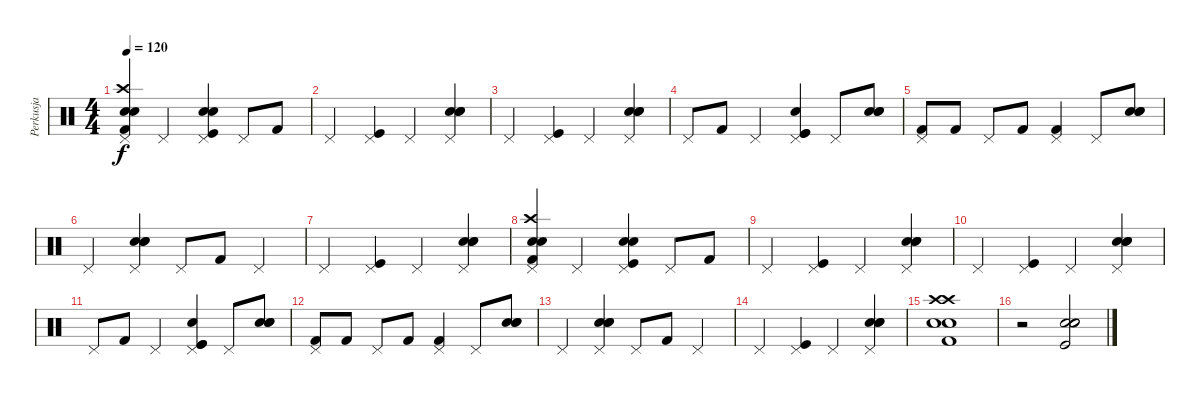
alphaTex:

\track ("Perkusja" "Perkusja") {instrument percussion}
\staff {score}
\articulation defaults
\ts (4 4)
\tempo 120
\clef neutral
\ks c
("Pedal Hi-Hat (hit)" "Crash high (hit)" "Snare (hit) 2" "Electric Snare (hit)" "Kick (hit) 2").4{dy f} "Pedal Hi-Hat (hit)".4 ("Pedal Hi-Hat (hit)" "Kick (hit)" "Electric Snare (hit)" "Snare (hit) 2").4 "Pedal Hi-Hat (hit)".8 "Kick (hit) 2".8 |
"Pedal Hi-Hat (hit)".4 ("Pedal Hi-Hat (hit)" "Kick (hit)").4 "Pedal Hi-Hat (hit)".4 ("Pedal Hi-Hat (hit)" "Snare (hit) 2" "Snare (hit) 2" "Electric Snare (hit)").4 |
"Pedal Hi-Hat (hit)".4 ("Pedal Hi-Hat (hit)" "Kick (hit)").4 "Pedal Hi-Hat (hit)".4 ("Pedal Hi-Hat (hit)" "Snare (hit) 2" "Snare (hit) 2" "Electric Snare (hit)").4 |
"Pedal Hi-Hat (hit)".8 "Kick (hit) 2".8 "Pedal Hi-Hat (hit)".4 ("Pedal Hi-Hat (hit)" "Electric Snare (hit)" "Kick (hit)" "Kick (hit)").4 "Pedal Hi-Hat (hit)".8 ("Snare (hit) 2" "Snare (hit) 2" "Electric Snare (hit)").8 |
("Pedal Hi-Hat (hit)" "Kick (hit) 2").8 "Kick (hit) 2".8 "Pedal Hi-Hat (hit)".8 "Kick (hit) 2".8 ("Pedal Hi-Hat (hit)" "Kick (hit) 2").4 "Pedal Hi-Hat (hit)".8 ("Snare (hit) 2" "Snare (hit) 2" "Electric Snare (hit)").8 |
"Pedal Hi-Hat (hit)".4 ("Pedal Hi-Hat (hit)" "Snare (hit) 2" "Snare (hit) 2" "Electric Snare (hit)").4 "Pedal Hi-Hat (hit)".8 "Kick (hit) 2".8 "Pedal Hi-Hat (hit)".4 |
"Pedal Hi-Hat (hit)".4 ("Pedal Hi-Hat (hit)" "Kick (hit)").4 "Pedal Hi-Hat (hit)".4 ("Pedal Hi-Hat (hit)" "Snare (hit) 2" "Snare (hit) 2" "Electric Snare (hit)").4 |
("Pedal Hi-Hat (hit)" "Crash high (hit)" "Snare (hit) 2" "Electric Snare (hit)" "Kick (hit) 2").4 "Pedal Hi-Hat (hit)".4 ("Pedal Hi-Hat (hit)" "Kick (hit)" "Electric Snare (hit)" "Snare (hit) 2").4 "Pedal Hi-Hat (hit)".8 "Kick (hit) 2".8 |
"Pedal Hi-Hat (hit)".4 ("Pedal Hi-Hat (hit)" "Kick (hit)").4 "Pedal Hi-Hat (hit)".4 ("Pedal Hi-Hat (hit)" "Snare (hit) 2" "Snare (hit) 2" "Electric Snare (hit)").4 |
"Pedal Hi-Hat (hit)".4 ("Pedal Hi-Hat (hit)" "Kick (hit)").4 "Pedal Hi-Hat (hit)".4 ("Pedal Hi-Hat (hit)" "Snare (hit) 2" "Snare (hit) 2" "Electric Snare (hit)").4 |
"Pedal Hi-Hat (hit)".8 "Kick (hit) 2".8 "Pedal Hi-Hat (hit)".4 ("Pedal Hi-Hat (hit)" "Electric Snare (hit)" "Kick (hit)" "Kick (hit)").4 "Pedal Hi-Hat (hit)".8 ("Snare (hit) 2" "Snare (hit) 2" "Electric Snare (hit)").8 |
("Pedal Hi-Hat (hit)" "Kick (hit) 2").8 "Kick (hit) 2".8 "Pedal Hi-Hat (hit)".8 "Kick (hit) 2".8 ("Pedal Hi-Hat (hit)" "Kick (hit) 2").4 "Pedal Hi-Hat (hit)".8 ("Snare (hit) 2" "Snare (hit) 2" "Electric Snare (hit)").8 |
"Pedal Hi-Hat (hit)".4 ("Pedal Hi-Hat (hit)" "Snare (hit) 2" "Snare (hit) 2" "Electric Snare (hit)").4 "Pedal Hi-Hat (hit)".8 "Kick (hit) 2".8 "Pedal Hi-Hat (hit)".4 |
"Pedal Hi-Hat (hit)".4 ("Pedal Hi-Hat (hit)" "Kick (hit)").4 "Pedal Hi-Hat (hit)".4 ("Pedal Hi-Hat (hit)" "Snare (hit) 2" "Snare (hit) 2" "Electric Snare (hit)").4 |
("Crash high (hit)" "Crash high (hit)" "Snare (hit) 2" "Electric Snare (hit)" "Kick (hit) 2").1 |
r.2 ("Snare (hit) 2" "Kick (hit)" "Electric Snare (hit)" "Electric Snare (hit)").2
